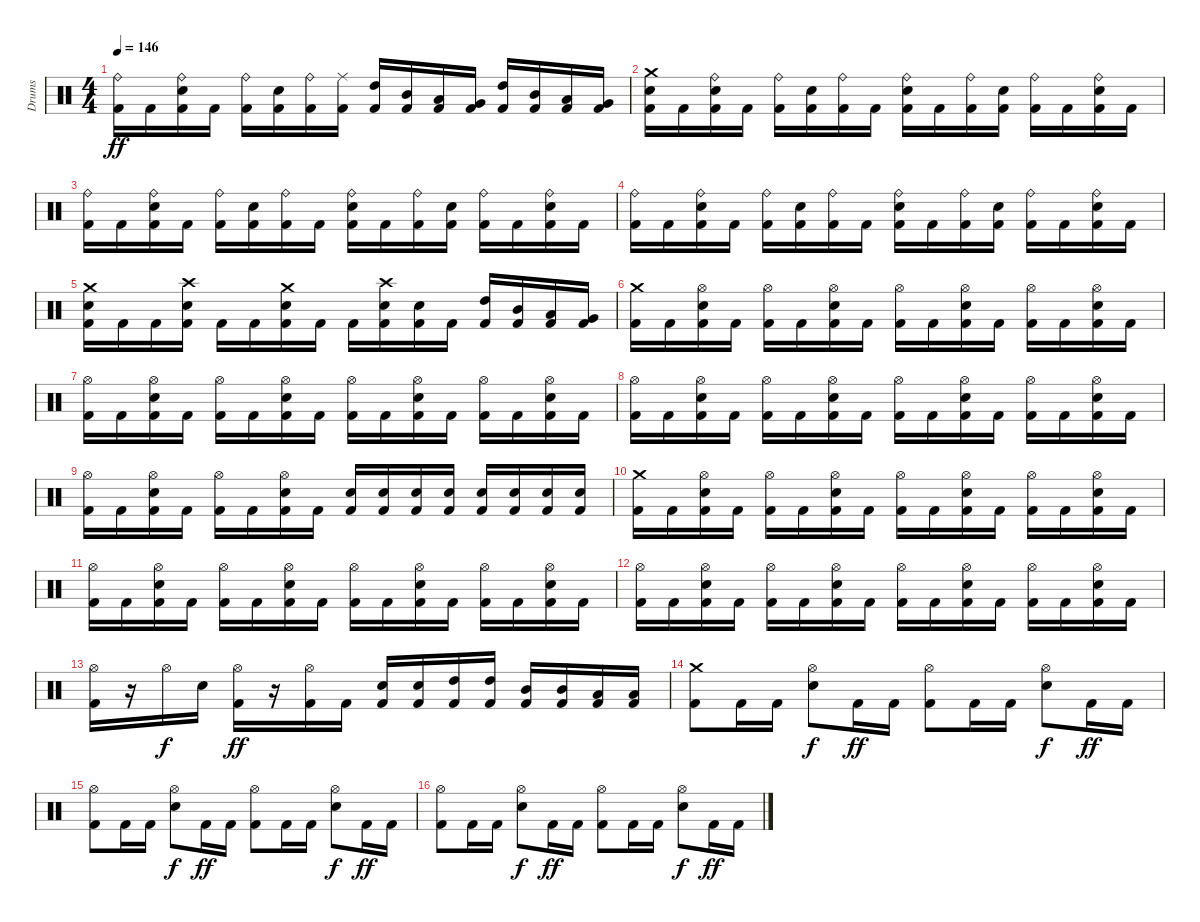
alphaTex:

\track ("Drums" "Drums") {instrument percussion}
\staff {score}
\articulation defaults
\ts (4 4)
\tempo 146
\clef neutral
\ks c
("Kick (hit) 2" "Ride (bell)").16{dy ff} "Kick (hit) 2".16 ("Kick (hit) 2" "Electric Snare (hit)" "Ride (bell)").16 "Kick (hit) 2".16 ("Kick (hit) 2" "Ride (bell)").16 ("Kick (hit) 2" "Electric Snare (hit)").16 ("Kick (hit) 2" "Ride (bell)").16 ("Kick (hit) 2" "Ride (middle)").16 ("Kick (hit) 2" "High Tom (hit)").16 ("Kick (hit) 2" "Mid Tom (hit)").16 ("Kick (hit) 2" "Low Tom (hit)").16 ("Kick (hit) 2" "Very Low Tom (hit)").16 ("Kick (hit) 2" "High Tom (hit)").16 ("Kick (hit) 2" "Mid Tom (hit)").16 ("Kick (hit) 2" "Low Tom (hit)").16 ("Kick (hit) 2" "Very Low Tom (hit)").16 |
("Kick (hit) 2" "Electric Snare (hit)" "Crash medium (hit)").16 "Kick (hit) 2".16 ("Kick (hit) 2" "Electric Snare (hit)" "Ride (bell)").16 "Kick (hit) 2".16 ("Kick (hit) 2" "Ride (bell)").16 ("Kick (hit) 2" "Electric Snare (hit)").16 ("Kick (hit) 2" "Ride (bell)").16 "Kick (hit) 2".16 ("Kick (hit) 2" "Electric Snare (hit)" "Ride (bell)").16 "Kick (hit) 2".16 ("Kick (hit) 2" "Ride (bell)").16 ("Kick (hit) 2" "Electric Snare (hit)").16 ("Kick (hit) 2" "Ride (bell)").16 "Kick (hit) 2".16 ("Kick (hit) 2" "Electric Snare (hit)" "Ride (bell)").16 "Kick (hit) 2".16 |
("Kick (hit) 2" "Ride (bell)").16 "Kick (hit) 2".16 ("Kick (hit) 2" "Electric Snare (hit)" "Ride (bell)").16 "Kick (hit) 2".16 ("Kick (hit) 2" "Ride (bell)").16 ("Kick (hit) 2" "Electric Snare (hit)").16 ("Kick (hit) 2" "Ride (bell)").16 "Kick (hit) 2".16 ("Kick (hit) 2" "Electric Snare (hit)" "Ride (bell)").16 "Kick (hit) 2".16 ("Kick (hit) 2" "Ride (bell)").16 ("Kick (hit) 2" "Electric Snare (hit)").16 ("Kick (hit) 2" "Ride (bell)").16 "Kick (hit) 2".16 ("Kick (hit) 2" "Electric Snare (hit)" "Ride (bell)").16 "Kick (hit) 2".16 |
("Kick (hit) 2" "Ride (bell)").16 "Kick (hit) 2".16 ("Kick (hit) 2" "Electric Snare (hit)" "Ride (bell)").16 "Kick (hit) 2".16 ("Kick (hit) 2" "Ride (bell)").16 ("Kick (hit) 2" "Electric Snare (hit)").16 ("Kick (hit) 2" "Ride (bell)").16 "Kick (hit) 2".16 ("Kick (hit) 2" "Electric Snare (hit)" "Ride (bell)").16 "Kick (hit) 2".16 ("Kick (hit) 2" "Ride (bell)").16 ("Kick (hit) 2" "Electric Snare (hit)").16 ("Kick (hit) 2" "Ride (bell)").16 "Kick (hit) 2".16 ("Kick (hit) 2" "Electric Snare (hit)" "Ride (bell)").16 "Kick (hit) 2".16 |
("Kick (hit) 2" "Electric Snare (hit)" "Crash medium (hit)").16 "Kick (hit) 2".16 "Kick (hit) 2".16 ("Kick (hit) 2" "Electric Snare (hit)" "Crash high (hit)").16 "Kick (hit) 2".16 "Kick (hit) 2".16 ("Kick (hit) 2" "Electric Snare (hit)" "Crash medium (hit)").16 "Kick (hit) 2".16 "Kick (hit) 2".16 ("Kick (hit) 2" "Electric Snare (hit)" "Crash high (hit)").16 ("Kick (hit) 2" "Electric Snare (hit)").16 "Kick (hit) 2".16 ("Kick (hit) 2" "High Tom (hit)").16 ("Kick (hit) 2" "Mid Tom (hit)").16 ("Kick (hit) 2" "Low Tom (hit)").16 ("Kick (hit) 2" "Very Low Tom (hit)").16 |
("Kick (hit) 2" "Crash medium (hit)").16 "Kick (hit) 2".16 ("Kick (hit) 2" "Electric Snare (hit)" "Hi-Hat (open)").16 "Kick (hit) 2".16 ("Kick (hit) 2" "Hi-Hat (open)").16 "Kick (hit) 2".16 ("Kick (hit) 2" "Electric Snare (hit)" "Hi-Hat (open)").16 "Kick (hit) 2".16 ("Kick (hit) 2" "Hi-Hat (open)").16 "Kick (hit) 2".16 ("Kick (hit) 2" "Electric Snare (hit)" "Hi-Hat (open)").16 "Kick (hit) 2".16 ("Kick (hit) 2" "Hi-Hat (open)").16 "Kick (hit) 2".16 ("Kick (hit) 2" "Electric Snare (hit)" "Hi-Hat (open)").16 "Kick (hit) 2".16 |
("Kick (hit) 2" "Hi-Hat (open)").16 "Kick (hit) 2".16 ("Kick (hit) 2" "Electric Snare (hit)" "Hi-Hat (open)").16 "Kick (hit) 2".16 ("Kick (hit) 2" "Hi-Hat (open)").16 "Kick (hit) 2".16 ("Kick (hit) 2" "Electric Snare (hit)" "Hi-Hat (open)").16 "Kick (hit) 2".16 ("Kick (hit) 2" "Hi-Hat (open)").16 "Kick (hit) 2".16 ("Kick (hit) 2" "Electric Snare (hit)" "Hi-Hat (open)").16 "Kick (hit) 2".16 ("Kick (hit) 2" "Hi-Hat (open)").16 "Kick (hit) 2".16 ("Kick (hit) 2" "Electric Snare (hit)" "Hi-Hat (open)").16 "Kick (hit) 2".16 |
("Kick (hit) 2" "Hi-Hat (open)").16 "Kick (hit) 2".16 ("Kick (hit) 2" "Electric Snare (hit)" "Hi-Hat (open)").16 "Kick (hit) 2".16 ("Kick (hit) 2" "Hi-Hat (open)").16 "Kick (hit) 2".16 ("Kick (hit) 2" "Electric Snare (hit)" "Hi-Hat (open)").16 "Kick (hit) 2".16 ("Kick (hit) 2" "Hi-Hat (open)").16 "Kick (hit) 2".16 ("Kick (hit) 2" "Electric Snare (hit)" "Hi-Hat (open)").16 "Kick (hit) 2".16 ("Kick (hit) 2" "Hi-Hat (open)").16 "Kick (hit) 2".16 ("Kick (hit) 2" "Electric Snare (hit)" "Hi-Hat (open)").16 "Kick (hit) 2".16 |
("Kick (hit) 2" "Hi-Hat (open)").16 "Kick (hit) 2".16 ("Kick (hit) 2" "Electric Snare (hit)" "Hi-Hat (open)").16 "Kick (hit) 2".16 ("Kick (hit) 2" "Hi-Hat (open)").16 "Kick (hit) 2".16 ("Kick (hit) 2" "Electric Snare (hit)" "Hi-Hat (open)").16 "Kick (hit) 2".16 ("Kick (hit) 2" "Electric Snare (hit)").16 ("Kick (hit) 2" "Electric Snare (hit)").16 ("Kick (hit) 2" "Electric Snare (hit)").16 ("Kick (hit) 2" "Electric Snare (hit)").16 ("Kick (hit) 2" "Electric Snare (hit)").16 ("Kick (hit) 2" "Electric Snare (hit)").16 ("Kick (hit) 2" "Electric Snare (hit)").16 ("Kick (hit) 2" "Electric Snare (hit)").16 |
("Kick (hit) 2" "Crash medium (hit)").16 "Kick (hit) 2".16 ("Kick (hit) 2" "Electric Snare (hit)" "Hi-Hat (open)").16 "Kick (hit) 2".16 ("Kick (hit) 2" "Hi-Hat (open)").16 "Kick (hit) 2".16 ("Kick (hit) 2" "Electric Snare (hit)" "Hi-Hat (open)").16 "Kick (hit) 2".16 ("Kick (hit) 2" "Hi-Hat (open)").16 "Kick (hit) 2".16 ("Kick (hit) 2" "Electric Snare (hit)" "Hi-Hat (open)").16 "Kick (hit) 2".16 ("Kick (hit) 2" "Hi-Hat (open)").16 "Kick (hit) 2".16 ("Kick (hit) 2" "Electric Snare (hit)" "Hi-Hat (open)").16 "Kick (hit) 2".16 |
("Kick (hit) 2" "Hi-Hat (open)").16 "Kick (hit) 2".16 ("Kick (hit) 2" "Electric Snare (hit)" "Hi-Hat (open)").16 "Kick (hit) 2".16 ("Kick (hit) 2" "Hi-Hat (open)").16 "Kick (hit) 2".16 ("Kick (hit) 2" "Electric Snare (hit)" "Hi-Hat (open)").16 "Kick (hit) 2".16 ("Kick (hit) 2" "Hi-Hat (open)").16 "Kick (hit) 2".16 ("Kick (hit) 2" "Electric Snare (hit)" "Hi-Hat (open)").16 "Kick (hit) 2".16 ("Kick (hit) 2" "Hi-Hat (open)").16 "Kick (hit) 2".16 ("Kick (hit) 2" "Electric Snare (hit)" "Hi-Hat (open)").16 "Kick (hit) 2".16 |
("Kick (hit) 2" "Hi-Hat (open)").16 "Kick (hit) 2".16 ("Kick (hit) 2" "Electric Snare (hit)" "Hi-Hat (open)").16 "Kick (hit) 2".16 ("Kick (hit) 2" "Hi-Hat (open)").16 "Kick (hit) 2".16 ("Kick (hit) 2" "Electric Snare (hit)" "Hi-Hat (open)").16 "Kick (hit) 2".16 ("Kick (hit) 2" "Hi-Hat (open)").16 "Kick (hit) 2".16 ("Kick (hit) 2" "Electric Snare (hit)" "Hi-Hat (open)").16 "Kick (hit) 2".16 ("Kick (hit) 2" "Hi-Hat (open)").16 "Kick (hit) 2".16 ("Kick (hit) 2" "Electric Snare (hit)" "Hi-Hat (open)").16 "Kick (hit) 2".16 |
("Kick (hit) 2" "Hi-Hat (open)").16 r.16 "Hi-Hat (open)".16{dy f} "Electric Snare (hit)".16 ("Kick (hit) 2" "Hi-Hat (open)").16{dy ff} r.16 ("Kick (hit) 2" "Hi-Hat (open)").16 "Kick (hit) 2".16 ("Kick (hit) 2" "Electric Snare (hit)").16 ("Kick (hit) 2" "Electric Snare (hit)").16 ("Kick (hit) 2" "High Tom (hit)").16 ("Kick (hit) 2" "High Tom (hit)").16 ("Kick (hit) 2" "Mid Tom (hit)").16 ("Kick (hit) 2" "Mid Tom (hit)").16 ("Kick (hit) 2" "Low Tom (hit)").16 ("Kick (hit) 2" "Low Tom (hit)").16 |
("Kick (hit) 2" "Crash medium (hit)").8 "Kick (hit) 2".16 "Kick (hit) 2".16 ("Electric Snare (hit)" "Hi-Hat (open)").8{dy f} "Kick (hit) 2".16{dy ff} "Kick (hit) 2".16 ("Kick (hit) 2" "Hi-Hat (open)").8 "Kick (hit) 2".16 "Kick (hit) 2".16 ("Electric Snare (hit)" "Hi-Hat (open)").8{dy f} "Kick (hit) 2".16{dy ff} "Kick (hit) 2".16 |
("Kick (hit) 2" "Hi-Hat (open)").8 "Kick (hit) 2".16 "Kick (hit) 2".16 ("Electric Snare (hit)" "Hi-Hat (open)").8{dy f} "Kick (hit) 2".16{dy ff} "Kick (hit) 2".16 ("Kick (hit) 2" "Hi-Hat (open)").8 "Kick (hit) 2".16 "Kick (hit) 2".16 ("Electric Snare (hit)" "Hi-Hat (open)").8{dy f} "Kick (hit) 2".16{dy ff} "Kick (hit) 2".16 |
("Kick (hit) 2" "Hi-Hat (open)").8 "Kick (hit) 2".16 "Kick (hit) 2".16 ("Electric Snare (hit)" "Hi-Hat (open)").8{dy f} "Kick (hit) 2".16{dy ff} "Kick (hit) 2".16 ("Kick (hit) 2" "Hi-Hat (open)").8 "Kick (hit) 2".16 "Kick (hit) 2".16 ("Electric Snare (hit)" "Hi-Hat (open)").8{dy f} "Kick (hit) 2".16{dy ff} "Kick (hit) 2".16
